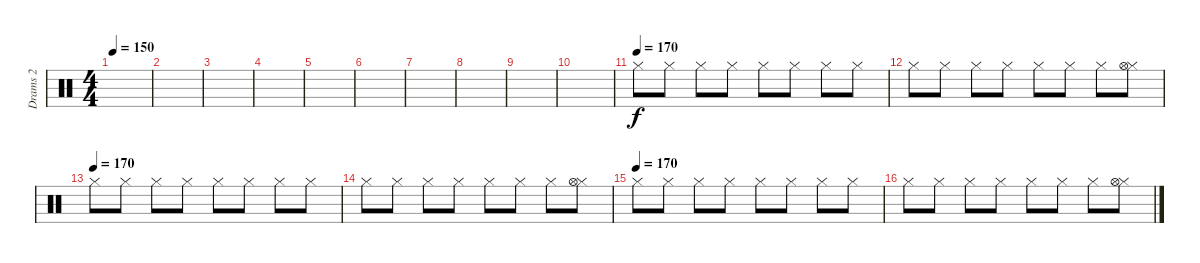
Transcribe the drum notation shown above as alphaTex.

\track ("Drams 2" "Drams 2") {instrument percussion}
\staff {score}
\articulation defaults
\ts (4 4)
\tempo 150
\clef neutral
\ks c
|
|
|
|
|
|
|
|
|
|
\tempo (170)
"Hi-Hat (closed)".8 "Hi-Hat (closed)".8 "Hi-Hat (closed)".8 "Hi-Hat (closed)".8 "Hi-Hat (closed)".8 "Hi-Hat (closed)".8 "Hi-Hat (closed)".8 "Hi-Hat (closed)".8 |
"Hi-Hat (closed)".8 "Hi-Hat (closed)".8 "Hi-Hat (closed)".8 "Hi-Hat (closed)".8 "Hi-Hat (closed)".8 "Hi-Hat (closed)".8 "Hi-Hat (closed)".8 ("Hi-Hat (closed)" "Hi-Hat (open)").8 |
\tempo (170)
"Hi-Hat (closed)".8 "Hi-Hat (closed)".8 "Hi-Hat (closed)".8 "Hi-Hat (closed)".8 "Hi-Hat (closed)".8 "Hi-Hat (closed)".8 "Hi-Hat (closed)".8 "Hi-Hat (closed)".8 |
"Hi-Hat (closed)".8 "Hi-Hat (closed)".8 "Hi-Hat (closed)".8 "Hi-Hat (closed)".8 "Hi-Hat (closed)".8 "Hi-Hat (closed)".8 "Hi-Hat (closed)".8 ("Hi-Hat (closed)" "Hi-Hat (open)").8 |
\tempo (170)
"Hi-Hat (closed)".8 "Hi-Hat (closed)".8 "Hi-Hat (closed)".8 "Hi-Hat (closed)".8 "Hi-Hat (closed)".8 "Hi-Hat (closed)".8 "Hi-Hat (closed)".8 "Hi-Hat (closed)".8 |
"Hi-Hat (closed)".8 "Hi-Hat (closed)".8 "Hi-Hat (closed)".8 "Hi-Hat (closed)".8 "Hi-Hat (closed)".8 "Hi-Hat (closed)".8 "Hi-Hat (closed)".8 ("Hi-Hat (closed)" "Hi-Hat (open)").8
